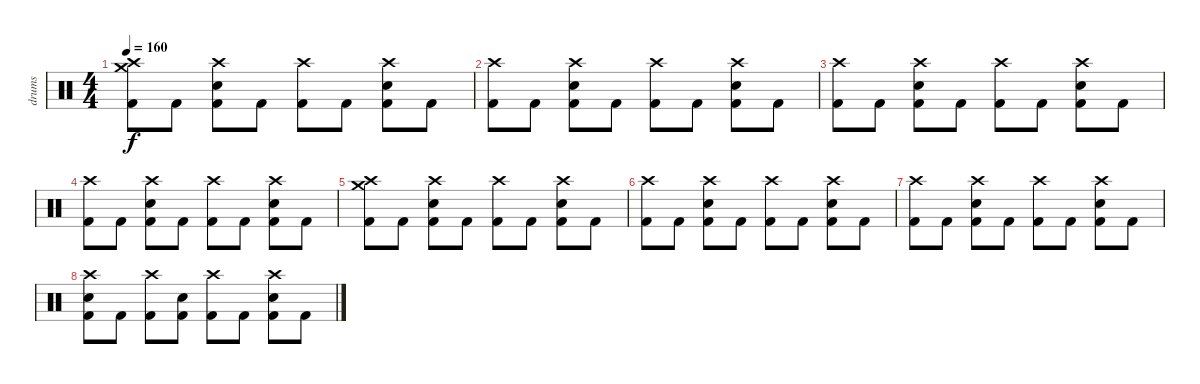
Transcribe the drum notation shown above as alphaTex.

\track ("drums" "drums") {instrument percussion}
\staff {score}
\articulation defaults
\ts (4 4)
\tempo 160
\clef neutral
\ks c
("Crash high (hit)" "Crash medium (hit)" "Kick (hit) 2").8{dy f} "Kick (hit) 2".8 ("Crash high (hit)" "Electric Snare (hit)" "Kick (hit) 2").8 "Kick (hit) 2".8 ("Crash high (hit)" "Kick (hit) 2").8 "Kick (hit) 2".8 ("Crash high (hit)" "Electric Snare (hit)" "Kick (hit) 2").8 "Kick (hit) 2".8 |
("Crash high (hit)" "Kick (hit) 2").8 "Kick (hit) 2".8 ("Crash high (hit)" "Electric Snare (hit)" "Kick (hit) 2").8 "Kick (hit) 2".8 ("Crash high (hit)" "Kick (hit) 2").8 "Kick (hit) 2".8 ("Crash high (hit)" "Electric Snare (hit)" "Kick (hit) 2").8 "Kick (hit) 2".8 |
("Crash high (hit)" "Kick (hit) 2").8 "Kick (hit) 2".8 ("Crash high (hit)" "Electric Snare (hit)" "Kick (hit) 2").8 "Kick (hit) 2".8 ("Crash high (hit)" "Kick (hit) 2").8 "Kick (hit) 2".8 ("Crash high (hit)" "Electric Snare (hit)" "Kick (hit) 2").8 "Kick (hit) 2".8 |
("Crash high (hit)" "Kick (hit) 2").8 "Kick (hit) 2".8 ("Crash high (hit)" "Electric Snare (hit)" "Kick (hit) 2").8 "Kick (hit) 2".8 ("Crash high (hit)" "Kick (hit) 2").8 "Kick (hit) 2".8 ("Crash high (hit)" "Electric Snare (hit)" "Kick (hit) 2").8 "Kick (hit) 2".8 |
("Crash high (hit)" "Crash medium (hit)" "Kick (hit) 2").8 "Kick (hit) 2".8 ("Crash high (hit)" "Electric Snare (hit)" "Kick (hit) 2").8 "Kick (hit) 2".8 ("Crash high (hit)" "Kick (hit) 2").8 "Kick (hit) 2".8 ("Crash high (hit)" "Electric Snare (hit)" "Kick (hit) 2").8 "Kick (hit) 2".8 |
("Crash high (hit)" "Kick (hit) 2").8 "Kick (hit) 2".8 ("Crash high (hit)" "Electric Snare (hit)" "Kick (hit) 2").8 "Kick (hit) 2".8 ("Crash high (hit)" "Kick (hit) 2").8 "Kick (hit) 2".8 ("Crash high (hit)" "Electric Snare (hit)" "Kick (hit) 2").8 "Kick (hit) 2".8 |
("Crash high (hit)" "Kick (hit) 2").8 "Kick (hit) 2".8 ("Crash high (hit)" "Electric Snare (hit)" "Kick (hit) 2").8 "Kick (hit) 2".8 ("Crash high (hit)" "Kick (hit) 2").8 "Kick (hit) 2".8 ("Crash high (hit)" "Electric Snare (hit)" "Kick (hit) 2").8 "Kick (hit) 2".8 |
("Crash high (hit)" "Electric Snare (hit)" "Kick (hit) 2").8 "Kick (hit) 2".8 ("Crash high (hit)" "Kick (hit) 2").8 ("Electric Snare (hit)" "Kick (hit) 2").8 ("Crash high (hit)" "Kick (hit) 2").8 "Kick (hit) 2".8 ("Crash high (hit)" "Electric Snare (hit)" "Kick (hit) 2").8 "Kick (hit) 2".8
